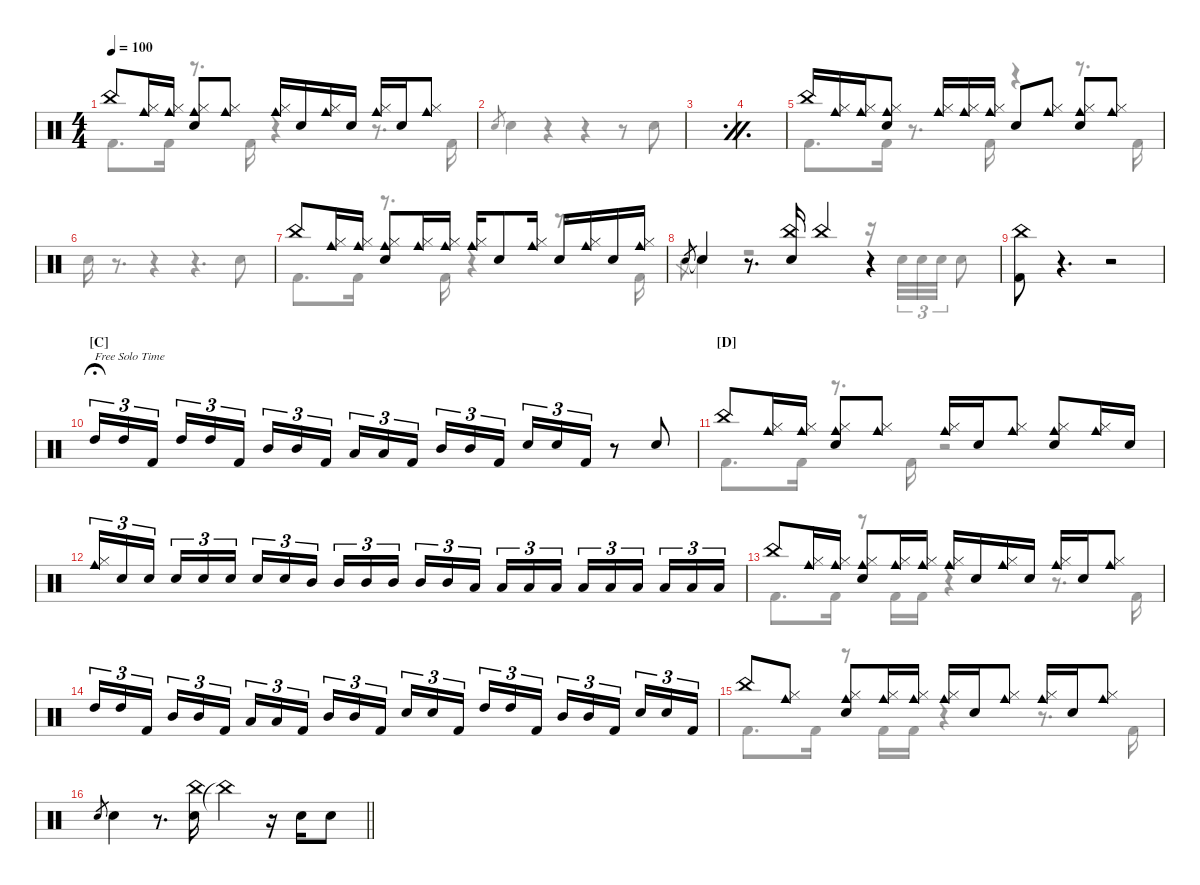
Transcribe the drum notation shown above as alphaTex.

\defaultSystemsLayout 4
\hideDynamics
\bracketExtendMode nobrackets
\singleTrackTrackNamePolicy hidden
\multiTrackTrackNamePolicy hidden
\firstSystemTrackNameMode fullname
\firstSystemTrackNameOrientation horizontal
\otherSystemsTrackNameOrientation horizontal
\track ("John Bonham" "Drums") {defaultSystemsLayout 2 instrument percussion}
\staff {score}
\articulation defaults
\voice
\ts (4 4)
\tempo 100
\clef neutral
\ks c "China (hit)".8{dy mf beam Up}
("Hi-Hat (closed)" "Cowbell medium (hit)").16{beam Up} ("Hi-Hat (closed)" "Cowbell medium (hit)").16{beam Up} ("Hi-Hat (closed)" "Cowbell medium (hit)" "Snare (hit) 2").8{beam Up} ("Hi-Hat (closed)" "Cowbell medium (hit)").8{beam Up} ("Hi-Hat (closed)" "Cowbell medium (hit)").16{beam Up} "Snare (hit) 2".16{beam Up} ("Hi-Hat (closed)" "Cowbell medium (hit)").16{beam Up} "Snare (hit) 2".16{beam Up} ("Hi-Hat (closed)" "Cowbell medium (hit)").16{beam Up} "Snare (hit) 2".16{beam Up} ("Hi-Hat (closed)" "Cowbell medium (hit)").8{beam Up} |
|
\simile firstofdouble
|
\simile secondofdouble
|
\simile none "China (hit)".16{beam Up}
("Hi-Hat (closed)" "Cowbell medium (hit)").16{beam Up} ("Hi-Hat (closed)" "Cowbell medium (hit)").16{beam Up} ("Hi-Hat (closed)" "Cowbell medium (hit)" "Snare (hit) 2").8{beam Up} ("Hi-Hat (closed)" "Cowbell medium (hit)").16{beam Up} ("Hi-Hat (closed)" "Cowbell medium (hit)").16{beam Up} ("Hi-Hat (closed)" "Cowbell medium (hit)").16{beam Up} "Snare (hit) 2".8{beam Up} ("Hi-Hat (closed)" "Cowbell medium (hit)").8{beam Up} ("Hi-Hat (closed)" "Cowbell medium (hit)" "Snare (hit) 2").8{beam Up} ("Hi-Hat (closed)" "Cowbell medium (hit)").8{beam Up} |
|
"China (hit)".8{beam Up} ("Hi-Hat (closed)" "Cowbell medium (hit)").16{beam Up} ("Hi-Hat (closed)" "Cowbell medium (hit)").16{beam Up} ("Hi-Hat (closed)" "Cowbell medium (hit)" "Snare (hit) 2").8{beam Up} ("Hi-Hat (closed)" "Cowbell medium (hit)").16{beam Up} ("Hi-Hat (closed)" "Cowbell medium (hit)").16{beam Up} ("Hi-Hat (closed)" "Cowbell medium (hit)").16{beam Up} "Snare (hit) 2".8{beam Up} ("Hi-Hat (closed)" "Cowbell medium (hit)").16{beam Up} "Snare (hit) 2".16{beam Up} ("Hi-Hat (closed)" "Cowbell medium (hit)").16{beam Up} "Snare (hit) 2".16{beam Up} ("Hi-Hat (closed)" "Cowbell medium (hit)").16{beam Up} |
"Snare (hit) 2".8{gr beam Up} "Snare (hit) 2"{t}.4{beam Up} r.8{d beam Up} ("China (hit)" "Snare (hit) 2").16{beam Up} "China (hit)".4{beam Up} r.4{beam Up} |
("Kick (hit) 2" "China (hit)").8{beam Down} r.4{d beam Down} r.2{beam Down} |
\section ("C" "")
"High Tom (hit)".16{tu (3 2) txt "Free Solo Time" fermata (medium 0.5) beam Up} "High Tom (hit)".16{tu (3 2) beam Up} "Kick (hit) 2".16{tu (3 2) beam Up} "High Tom (hit)".16{tu (3 2) beam Up} "High Tom (hit)".16{tu (3 2) beam Up} "Kick (hit) 2".16{tu (3 2) beam Up} "Mid Tom (hit)".16{tu (3 2) beam Up} "Mid Tom (hit)".16{tu (3 2) beam Up} "Kick (hit) 2".16{tu (3 2) beam Up} "Low Tom (hit)".16{tu (3 2) beam Up} "Low Tom (hit)".16{tu (3 2) beam Up} "Kick (hit) 2".16{tu (3 2) beam Up} "Mid Tom (hit)".16{tu (3 2) beam Up} "Mid Tom (hit)".16{tu (3 2) beam Up} "Kick (hit) 2".16{tu (3 2) beam Up} "Snare (hit) 2".16{tu (3 2) beam Up} "Snare (hit) 2".16{tu (3 2) beam Up} "Kick (hit) 2".16{tu (3 2) beam Up} r.8{beam Up} "Snare (hit) 2".8{beam Down} |
\section ("D" "")
"China (hit)".8{beam Up} ("Hi-Hat (closed)" "Cowbell medium (hit)").16{beam Up} ("Hi-Hat (closed)" "Cowbell medium (hit)").16{beam Up} ("Hi-Hat (closed)" "Cowbell medium (hit)" "Snare (hit) 2").8{beam Up} ("Hi-Hat (closed)" "Cowbell medium (hit)").8{beam Up} ("Hi-Hat (closed)" "Cowbell medium (hit)").16{beam Up} "Snare (hit) 2".16{beam Up} ("Hi-Hat (closed)" "Cowbell medium (hit)").8{beam Up} ("Hi-Hat (closed)" "Cowbell medium (hit)" "Snare (hit) 2").8{beam Up} ("Hi-Hat (closed)" "Cowbell medium (hit)").16{beam Up} "Snare (hit) 2".16{beam Up} |
("Hi-Hat (closed)" "Cowbell medium (hit)").16{tu (3 2) beam Up} "Snare (hit) 2".16{tu (3 2) beam Up} "Snare (hit) 2".16{tu (3 2) beam Up} "Snare (hit) 2".16{tu (3 2) beam Up} "Snare (hit) 2".16{tu (3 2) beam Up} "Snare (hit) 2".16{tu (3 2) beam Up} "Snare (hit) 2".16{tu (3 2) beam Up} "Snare (hit) 2".16{tu (3 2) beam Up} "Mid Tom (hit)".16{tu (3 2) beam Up} "Mid Tom (hit)".16{tu (3 2) beam Up} "Mid Tom (hit)".16{tu (3 2) beam Up} "Mid Tom (hit)".16{tu (3 2) beam Up} "Mid Tom (hit)".16{tu (3 2) beam Up} "Mid Tom (hit)".16{tu (3 2) beam Up} "Low Tom (hit)".16{tu (3 2) beam Up} "Low Tom (hit)".16{tu (3 2) beam Up} "Low Tom (hit)".16{tu (3 2) beam Up} "Low Tom (hit)".16{tu (3 2) beam Up} "Low Tom (hit)".16{tu (3 2) beam Up} "Low Tom (hit)".16{tu (3 2) beam Up} "Low Tom (hit)".16{tu (3 2) beam Up} "Low Tom (hit)".16{tu (3 2) beam Up} "Low Tom (hit)".16{tu (3 2) beam Up} "Low Tom (hit)".16{tu (3 2) beam Up} |
"China (hit)".8{beam Up} ("Hi-Hat (closed)" "Cowbell medium (hit)").16{beam Up} ("Hi-Hat (closed)" "Cowbell medium (hit)").16{beam Up} ("Hi-Hat (closed)" "Cowbell medium (hit)" "Snare (hit) 2").8{beam Up} ("Hi-Hat (closed)" "Cowbell medium (hit)").16{beam Up} ("Hi-Hat (closed)" "Cowbell medium (hit)").16{beam Up} ("Hi-Hat (closed)" "Cowbell medium (hit)").16{beam Up} "Snare (hit) 2".16{beam Up} ("Hi-Hat (closed)" "Cowbell medium (hit)").16{beam Up} "Snare (hit) 2".16{beam Up} ("Hi-Hat (closed)" "Cowbell medium (hit)").16{beam Up} "Snare (hit) 2".16{beam Up} ("Hi-Hat (closed)" "Cowbell medium (hit)").8{beam Up} |
"High Tom (hit)".16{tu (3 2) beam Up} "High Tom (hit)".16{tu (3 2) beam Up} "Kick (hit) 2".16{tu (3 2) beam Up} "Mid Tom (hit)".16{tu (3 2) beam Up} "Mid Tom (hit)".16{tu (3 2) beam Up} "Kick (hit) 2".16{tu (3 2) beam Up} "Low Tom (hit)".16{tu (3 2) beam Up} "Low Tom (hit)".16{tu (3 2) beam Up} "Kick (hit) 2".16{tu (3 2) beam Up} "Mid Tom (hit)".16{tu (3 2) beam Up} "Mid Tom (hit)".16{tu (3 2) beam Up} "Kick (hit) 2".16{tu (3 2) beam Up} "Snare (hit) 2".16{tu (3 2) beam Up} "Snare (hit) 2".16{tu (3 2) beam Up} "Kick (hit) 2".16{tu (3 2) beam Up} "High Tom (hit)".16{tu (3 2) beam Up} "High Tom (hit)".16{tu (3 2) beam Up} "Kick (hit) 2".16{tu (3 2) beam Up} "Mid Tom (hit)".16{tu (3 2) beam Up} "Mid Tom (hit)".16{tu (3 2) beam Up} "Kick (hit) 2".16{tu (3 2) beam Up} "Snare (hit) 2".16{tu (3 2) beam Up} "Snare (hit) 2".16{tu (3 2) beam Up} "Kick (hit) 2".16{tu (3 2) beam Up} |
"China (hit)".8{beam Up} ("Hi-Hat (closed)" "Cowbell medium (hit)").8{beam Up} ("Hi-Hat (closed)" "Cowbell medium (hit)" "Snare (hit) 2").8{beam Up} ("Hi-Hat (closed)" "Cowbell medium (hit)").16{beam Up} ("Hi-Hat (closed)" "Cowbell medium (hit)").16{beam Up} ("Hi-Hat (closed)" "Cowbell medium (hit)").16{beam Up} "Snare (hit) 2".16{beam Up} ("Hi-Hat (closed)" "Cowbell medium (hit)").8{beam Up} ("Hi-Hat (closed)" "Cowbell medium (hit)").16{beam Up} "Snare (hit) 2".16{beam Up} ("Hi-Hat (closed)" "Cowbell medium (hit)").8{beam Up} |
\barLineRight lightlight "Snare (hit) 2".8{gr beam Up} "Snare (hit) 2".4{beam Down}
r.8{d beam Down} ("Snare (hit) 2" "China (hit)").16{beam Down} "China (hit)"{t}.4{beam Down} r.16{beam Down} "Snare (hit) 2".16{beam Down} "Snare (hit) 2".8{beam Down}
\voice
\clef neutral
\ottava regular
\simile none
\ks c "Kick (hit) 2".8{d dy mf beam Down} "Kick (hit) 2".16{beam Down}
r.8{d beam Down} "Kick (hit) 2".16{beam Down} r.4{beam Down} r.8{d beam Down} "Kick (hit) 2".16{beam Down} |
"Snare (hit) 2".8{gr beam Up} "Snare (hit) 2".4{beam Down} r.4{beam Down} r.4{beam Down} r.8{beam Down} "Snare (hit) 2".8{beam Down} |
\simile firstofdouble
|
\simile secondofdouble
|
\simile none "Kick (hit) 2".8{d beam Down} "Kick (hit) 2".16{beam Down}
r.8{d beam Down} "Kick (hit) 2".16{beam Down} r.4{beam Down} r.8{d beam Down} "Kick (hit) 2".16{beam Down} |
"Snare (hit) 2".16{beam Down} r.8{d beam Down} r.4{beam Down} r.4{d beam Down} "Snare (hit) 2".8{beam Down} |
"Kick (hit) 2".8{d beam Down} "Kick (hit) 2".16{beam Down} r.8{d beam Down} "Kick (hit) 2".16{beam Down} r.4{beam Down} r.8{d beam Down} "Kick (hit) 2".16{beam Down} |
"Snare (hit) 2".8{gr beam Down} "Snare (hit) 2"{t}.4{beam Down} r.2{beam Down} r.16{beam Down} "Snare (hit) 2".32{tu (3 2) beam Down} "Snare (hit) 2".32{tu (3 2) beam Down} "Snare (hit) 2".32{tu (3 2) beam Down} "Snare (hit) 2".8{beam Down} |
|
|
"Kick (hit) 2".8{d beam Down} "Kick (hit) 2".16{beam Down} r.8{d beam Down} "Kick (hit) 2".16{beam Down} r.2{beam Down} |
|
"Kick (hit) 2".8{d beam Down} "Kick (hit) 2".16{beam Down} r.8{beam Down} "Kick (hit) 2".16{beam Down} "Kick (hit) 2".16{beam Down} r.4{beam Down} r.8{d beam Down} "Kick (hit) 2".16{beam Down} |
|
"Kick (hit) 2".8{d beam Down} "Kick (hit) 2".16{beam Down} r.8{beam Down} "Kick (hit) 2".16{beam Down} "Kick (hit) 2".16{beam Down} r.4{beam Down} r.8{d beam Down} "Kick (hit) 2".16{beam Down} |
\barLineRight lightlight
